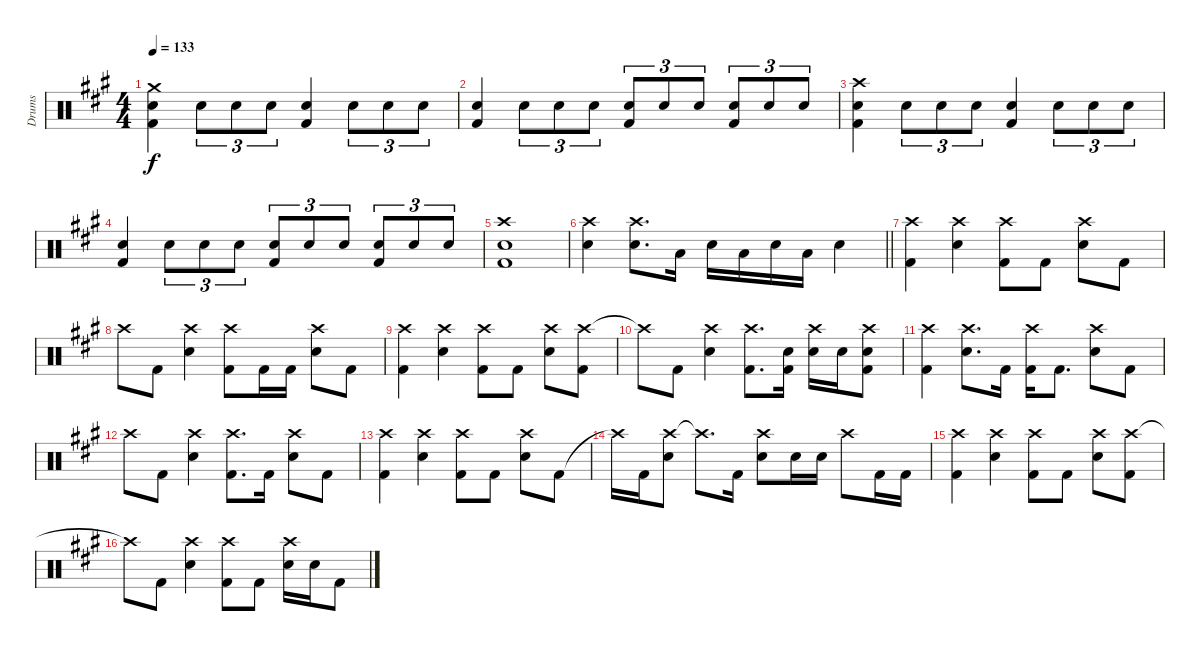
\track ("Drums" "Drums") {instrument percussion}
\staff {score}
\articulation defaults
\ts (4 4)
\tempo 133
\clef neutral
\ks a
("Crash medium (hit)" "Snare (hit) 2" "Kick (hit) 2").4{dy f} "Snare (hit) 2".8{tu (3 2)} "Snare (hit) 2".8{tu (3 2)} "Snare (hit) 2".8{tu (3 2)} ("Snare (hit) 2" "Kick (hit) 2").4 "Snare (hit) 2".8{tu (3 2)} "Snare (hit) 2".8{tu (3 2)} "Snare (hit) 2".8{tu (3 2)} |
("Snare (hit) 2" "Kick (hit) 2").4 "Snare (hit) 2".8{tu (3 2)} "Snare (hit) 2".8{tu (3 2)} "Snare (hit) 2".8{tu (3 2)} ("Snare (hit) 2" "Kick (hit) 2").8{tu (3 2)} "Snare (hit) 2".8{tu (3 2)} "Snare (hit) 2".8{tu (3 2)} ("Snare (hit) 2" "Kick (hit) 2").8{tu (3 2)} "Snare (hit) 2".8{tu (3 2)} "Snare (hit) 2".8{tu (3 2)} |
("Crash high (hit)" "Snare (hit) 2" "Kick (hit) 2").4 "Snare (hit) 2".8{tu (3 2)} "Snare (hit) 2".8{tu (3 2)} "Snare (hit) 2".8{tu (3 2)} ("Snare (hit) 2" "Kick (hit) 2").4 "Snare (hit) 2".8{tu (3 2)} "Snare (hit) 2".8{tu (3 2)} "Snare (hit) 2".8{tu (3 2)} |
("Snare (hit) 2" "Kick (hit) 2").4 "Snare (hit) 2".8{tu (3 2)} "Snare (hit) 2".8{tu (3 2)} "Snare (hit) 2".8{tu (3 2)} ("Snare (hit) 2" "Kick (hit) 2").8{tu (3 2)} "Snare (hit) 2".8{tu (3 2)} "Snare (hit) 2".8{tu (3 2)} ("Snare (hit) 2" "Kick (hit) 2").8{tu (3 2)} "Snare (hit) 2".8{tu (3 2)} "Snare (hit) 2".8{tu (3 2)} |
("Crash high (hit)" "Snare (hit) 2" "Kick (hit) 2").1 |
\barLineRight lightlight
("Crash high (hit)" "Snare (hit) 2").4 ("Crash high (hit)" "Snare (hit) 2").8{d} "Low Tom (hit)".16 "Snare (hit) 2".16 "Low Tom (hit)".16 "Snare (hit) 2".16 "Low Tom (hit)".16 "Snare (hit) 2".4 |
("Crash high (hit)" "Kick (hit) 2").4 ("Crash high (hit)" "Snare (hit) 2").4 ("Crash high (hit)" "Kick (hit) 2").8 "Kick (hit) 2".8 ("Crash high (hit)" "Snare (hit) 2").8 "Kick (hit) 2".8 |
"Crash high (hit)".8 "Kick (hit) 2".8 ("Crash high (hit)" "Snare (hit) 2").4 ("Crash high (hit)" "Kick (hit) 2").8 "Kick (hit) 2".16 "Kick (hit) 2".16 ("Crash high (hit)" "Snare (hit) 2").8 "Kick (hit) 2".8 |
("Crash high (hit)" "Kick (hit) 2").4 ("Crash high (hit)" "Snare (hit) 2").4 ("Crash high (hit)" "Kick (hit) 2").8 "Kick (hit) 2".8 ("Crash high (hit)" "Snare (hit) 2").8 ("Crash high (hit)" "Kick (hit) 2").8 |
"Crash high (hit)"{t}.8 "Kick (hit) 2".8 ("Crash high (hit)" "Snare (hit) 2").4 ("Crash high (hit)" "Kick (hit) 2").8{d} ("Snare (hit) 2" "Kick (hit) 2").16 ("Crash high (hit)" "Snare (hit) 2").16 "Snare (hit) 2".16 ("Crash high (hit)" "Snare (hit) 2" "Kick (hit) 2").8 |
("Crash high (hit)" "Kick (hit) 2").4 ("Crash high (hit)" "Snare (hit) 2").8{d} "Kick (hit) 2".16 ("Crash high (hit)" "Kick (hit) 2").16 "Kick (hit) 2".8{d} ("Crash high (hit)" "Snare (hit) 2").8 "Kick (hit) 2".8 |
"Crash high (hit)".8 "Kick (hit) 2".8 ("Crash high (hit)" "Snare (hit) 2").4 ("Crash high (hit)" "Kick (hit) 2").8{d} "Kick (hit) 2".16 ("Crash high (hit)" "Snare (hit) 2").8 "Kick (hit) 2".8 |
("Crash high (hit)" "Kick (hit) 2").4 ("Crash high (hit)" "Snare (hit) 2").4 ("Crash high (hit)" "Kick (hit) 2").8 "Kick (hit) 2".8 ("Crash high (hit)" "Snare (hit) 2").8 "Kick (hit) 2".8 |
"Crash high (hit)"{t}.16 "Kick (hit) 2".16 ("Crash high (hit)" "Snare (hit) 2").8 "Crash high (hit)"{t}.8{d} "Kick (hit) 2".16 ("Crash high (hit)" "Snare (hit) 2").8 "Snare (hit) 2".16 "Snare (hit) 2".16 "Crash high (hit)".8 "Kick (hit) 2".16 "Kick (hit) 2".16 |
("Crash high (hit)" "Kick (hit) 2").4 ("Crash high (hit)" "Snare (hit) 2").4 ("Crash high (hit)" "Kick (hit) 2").8 "Kick (hit) 2".8 ("Crash high (hit)" "Snare (hit) 2").8 ("Crash high (hit)" "Kick (hit) 2").8 |
"Crash high (hit)"{t}.8 "Kick (hit) 2".8 ("Crash high (hit)" "Snare (hit) 2").4 ("Crash high (hit)" "Kick (hit) 2").8 "Kick (hit) 2".8 ("Crash high (hit)" "Snare (hit) 2").16 "Snare (hit) 2".16 "Kick (hit) 2".8
